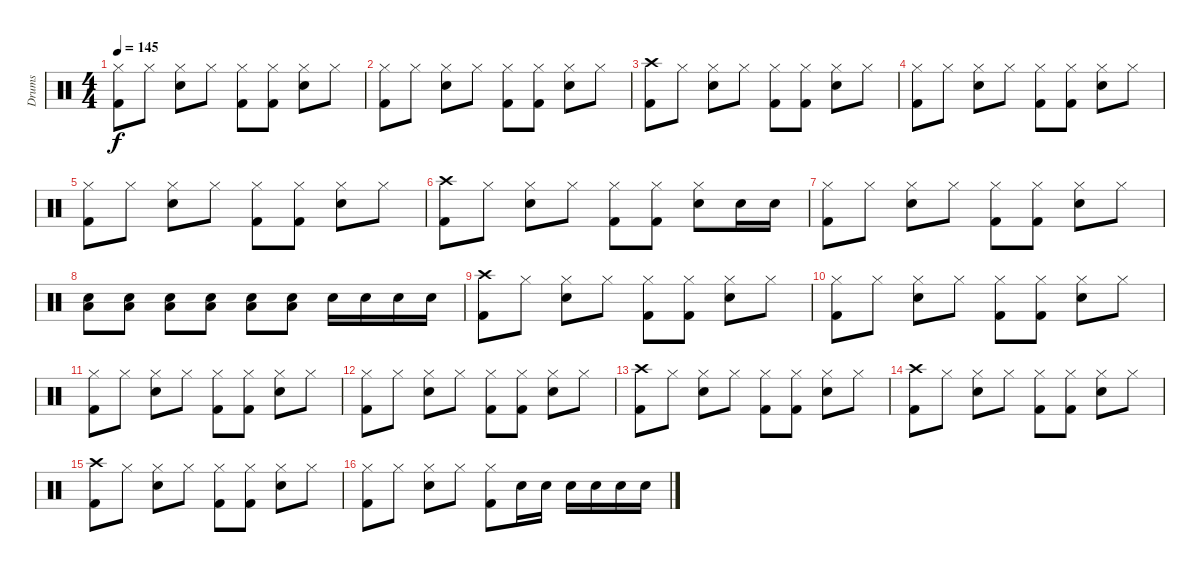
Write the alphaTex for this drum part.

\track ("Drums" "Drums") {instrument percussion}
\staff {score}
\articulation defaults
\ts (4 4)
\tempo 145
\clef neutral
\ks c
("Hi-Hat (closed)" "Kick (hit) 2").8{dy f} "Hi-Hat (closed)".8 ("Hi-Hat (closed)" "Electric Snare (hit)").8 "Hi-Hat (closed)".8 ("Hi-Hat (closed)" "Kick (hit) 2").8 ("Hi-Hat (closed)" "Kick (hit) 2").8 ("Hi-Hat (closed)" "Electric Snare (hit)").8 "Hi-Hat (closed)".8 |
("Hi-Hat (closed)" "Kick (hit) 2").8 "Hi-Hat (closed)".8 ("Hi-Hat (closed)" "Electric Snare (hit)").8 "Hi-Hat (closed)".8 ("Hi-Hat (closed)" "Kick (hit) 2").8 ("Hi-Hat (closed)" "Kick (hit) 2").8 ("Hi-Hat (closed)" "Electric Snare (hit)").8 "Hi-Hat (closed)".8 |
("Crash high (hit)" "Kick (hit) 2").8 "Hi-Hat (closed)".8 ("Hi-Hat (closed)" "Electric Snare (hit)").8 "Hi-Hat (closed)".8 ("Hi-Hat (closed)" "Kick (hit) 2").8 ("Hi-Hat (closed)" "Kick (hit) 2").8 ("Hi-Hat (closed)" "Electric Snare (hit)").8 "Hi-Hat (closed)".8 |
("Hi-Hat (closed)" "Kick (hit) 2").8 "Hi-Hat (closed)".8 ("Hi-Hat (closed)" "Electric Snare (hit)").8 "Hi-Hat (closed)".8 ("Hi-Hat (closed)" "Kick (hit) 2").8 ("Hi-Hat (closed)" "Kick (hit) 2").8 ("Hi-Hat (closed)" "Electric Snare (hit)").8 "Hi-Hat (closed)".8 |
("Hi-Hat (closed)" "Kick (hit) 2").8 "Hi-Hat (closed)".8 ("Hi-Hat (closed)" "Electric Snare (hit)").8 "Hi-Hat (closed)".8 ("Hi-Hat (closed)" "Kick (hit) 2").8 ("Hi-Hat (closed)" "Kick (hit) 2").8 ("Hi-Hat (closed)" "Electric Snare (hit)").8 "Hi-Hat (closed)".8 |
("Crash high (hit)" "Kick (hit) 2").8 "Hi-Hat (closed)".8 ("Hi-Hat (closed)" "Electric Snare (hit)").8 "Hi-Hat (closed)".8 ("Hi-Hat (closed)" "Kick (hit) 2").8 ("Hi-Hat (closed)" "Kick (hit) 2").8 ("Hi-Hat (closed)" "Electric Snare (hit)").8 "Electric Snare (hit)".16 "Electric Snare (hit)".16 |
("Hi-Hat (closed)" "Kick (hit) 2").8 "Hi-Hat (closed)".8 ("Hi-Hat (closed)" "Electric Snare (hit)").8 "Hi-Hat (closed)".8 ("Hi-Hat (closed)" "Kick (hit) 2").8 ("Hi-Hat (closed)" "Kick (hit) 2").8 ("Hi-Hat (closed)" "Electric Snare (hit)").8 "Hi-Hat (closed)".8 |
("Electric Snare (hit)" "Low Floor Tom (hit)").8 ("Electric Snare (hit)" "Low Floor Tom (hit)").8 ("Electric Snare (hit)" "Low Floor Tom (hit)").8 ("Electric Snare (hit)" "Low Floor Tom (hit)").8 ("Electric Snare (hit)" "Low Floor Tom (hit)").8 ("Electric Snare (hit)" "Low Floor Tom (hit)").8 "Electric Snare (hit)".16 "Electric Snare (hit)".16 "Electric Snare (hit)".16 "Electric Snare (hit)".16 |
("Crash high (hit)" "Kick (hit) 2").8 "Hi-Hat (closed)".8 ("Hi-Hat (closed)" "Electric Snare (hit)").8 "Hi-Hat (closed)".8 ("Hi-Hat (closed)" "Kick (hit) 2").8 ("Hi-Hat (closed)" "Kick (hit) 2").8 ("Hi-Hat (closed)" "Electric Snare (hit)").8 "Hi-Hat (closed)".8 |
("Hi-Hat (closed)" "Kick (hit) 2").8 "Hi-Hat (closed)".8 ("Hi-Hat (closed)" "Electric Snare (hit)").8 "Hi-Hat (closed)".8 ("Hi-Hat (closed)" "Kick (hit) 2").8 ("Hi-Hat (closed)" "Kick (hit) 2").8 ("Hi-Hat (closed)" "Electric Snare (hit)").8 "Hi-Hat (closed)".8 |
("Hi-Hat (closed)" "Kick (hit) 2").8 "Hi-Hat (closed)".8 ("Hi-Hat (closed)" "Electric Snare (hit)").8 "Hi-Hat (closed)".8 ("Hi-Hat (closed)" "Kick (hit) 2").8 ("Hi-Hat (closed)" "Kick (hit) 2").8 ("Hi-Hat (closed)" "Electric Snare (hit)").8 "Hi-Hat (closed)".8 |
("Hi-Hat (closed)" "Kick (hit) 2").8 "Hi-Hat (closed)".8 ("Hi-Hat (closed)" "Electric Snare (hit)").8 "Hi-Hat (closed)".8 ("Hi-Hat (closed)" "Kick (hit) 2").8 ("Hi-Hat (closed)" "Kick (hit) 2").8 ("Hi-Hat (closed)" "Electric Snare (hit)").8 "Hi-Hat (closed)".8 |
("Crash high (hit)" "Kick (hit) 2").8 "Hi-Hat (closed)".8 ("Hi-Hat (closed)" "Electric Snare (hit)").8 "Hi-Hat (closed)".8 ("Hi-Hat (closed)" "Kick (hit) 2").8 ("Hi-Hat (closed)" "Kick (hit) 2").8 ("Hi-Hat (closed)" "Electric Snare (hit)").8 "Hi-Hat (closed)".8 |
("Crash high (hit)" "Kick (hit) 2").8 "Hi-Hat (closed)".8 ("Hi-Hat (closed)" "Electric Snare (hit)").8 "Hi-Hat (closed)".8 ("Hi-Hat (closed)" "Kick (hit) 2").8 ("Hi-Hat (closed)" "Kick (hit) 2").8 ("Hi-Hat (closed)" "Electric Snare (hit)").8 "Hi-Hat (closed)".8 |
("Crash high (hit)" "Kick (hit) 2").8 "Hi-Hat (closed)".8 ("Hi-Hat (closed)" "Electric Snare (hit)").8 "Hi-Hat (closed)".8 ("Hi-Hat (closed)" "Kick (hit) 2").8 ("Hi-Hat (closed)" "Kick (hit) 2").8 ("Hi-Hat (closed)" "Electric Snare (hit)").8 "Hi-Hat (closed)".8 |
("Hi-Hat (closed)" "Kick (hit) 2").8 "Hi-Hat (closed)".8 ("Hi-Hat (closed)" "Electric Snare (hit)").8 "Hi-Hat (closed)".8 ("Hi-Hat (closed)" "Kick (hit) 2").8 "Electric Snare (hit)".16 "Electric Snare (hit)".16 "Electric Snare (hit)".16 "Electric Snare (hit)".16 "Electric Snare (hit)".16 "Electric Snare (hit)".16
